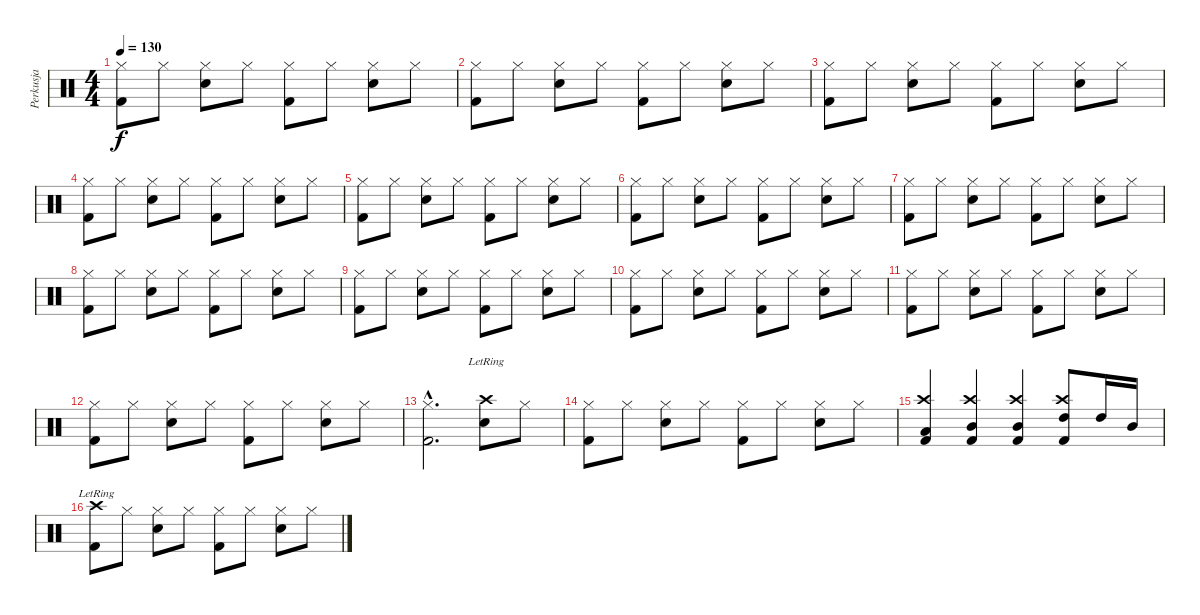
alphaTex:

\track ("Perkusja" "Perkusja") {instrument percussion}
\staff {score}
\articulation defaults
\ts (4 4)
\tempo 130
\clef neutral
\ks c
("Kick (hit) 2" "Hi-Hat (closed)").8{dy f} "Hi-Hat (closed)".8 ("Snare (hit) 2" "Hi-Hat (closed)").8 "Hi-Hat (closed)".8 ("Kick (hit) 2" "Hi-Hat (closed)").8 "Hi-Hat (closed)".8 ("Snare (hit) 2" "Hi-Hat (closed)").8 "Hi-Hat (closed)".8 |
("Kick (hit) 2" "Hi-Hat (closed)").8 "Hi-Hat (closed)".8 ("Snare (hit) 2" "Hi-Hat (closed)").8 "Hi-Hat (closed)".8 ("Kick (hit) 2" "Hi-Hat (closed)").8 "Hi-Hat (closed)".8 ("Snare (hit) 2" "Hi-Hat (closed)").8 "Hi-Hat (closed)".8 |
("Kick (hit) 2" "Hi-Hat (closed)").8 "Hi-Hat (closed)".8 ("Snare (hit) 2" "Hi-Hat (closed)").8 "Hi-Hat (closed)".8 ("Kick (hit) 2" "Hi-Hat (closed)").8 "Hi-Hat (closed)".8 ("Snare (hit) 2" "Hi-Hat (closed)").8 "Hi-Hat (closed)".8 |
("Kick (hit) 2" "Hi-Hat (closed)").8 "Hi-Hat (closed)".8 ("Snare (hit) 2" "Hi-Hat (closed)").8 "Hi-Hat (closed)".8 ("Kick (hit) 2" "Hi-Hat (closed)").8 "Hi-Hat (closed)".8 ("Snare (hit) 2" "Hi-Hat (closed)").8 "Hi-Hat (closed)".8 |
("Kick (hit) 2" "Hi-Hat (closed)").8 "Hi-Hat (closed)".8 ("Snare (hit) 2" "Hi-Hat (closed)").8 "Hi-Hat (closed)".8 ("Kick (hit) 2" "Hi-Hat (closed)").8 "Hi-Hat (closed)".8 ("Snare (hit) 2" "Hi-Hat (closed)").8 "Hi-Hat (closed)".8 |
("Kick (hit) 2" "Hi-Hat (closed)").8 "Hi-Hat (closed)".8 ("Snare (hit) 2" "Hi-Hat (closed)").8 "Hi-Hat (closed)".8 ("Kick (hit) 2" "Hi-Hat (closed)").8 "Hi-Hat (closed)".8 ("Snare (hit) 2" "Hi-Hat (closed)").8 "Hi-Hat (closed)".8 |
("Kick (hit) 2" "Hi-Hat (closed)").8 "Hi-Hat (closed)".8 ("Snare (hit) 2" "Hi-Hat (closed)").8 "Hi-Hat (closed)".8 ("Kick (hit) 2" "Hi-Hat (closed)").8 "Hi-Hat (closed)".8 ("Snare (hit) 2" "Hi-Hat (closed)").8 "Hi-Hat (closed)".8 |
("Kick (hit) 2" "Hi-Hat (closed)").8 "Hi-Hat (closed)".8 ("Snare (hit) 2" "Hi-Hat (closed)").8 "Hi-Hat (closed)".8 ("Kick (hit) 2" "Hi-Hat (closed)").8 "Hi-Hat (closed)".8 ("Snare (hit) 2" "Hi-Hat (closed)").8 "Hi-Hat (closed)".8 |
("Kick (hit) 2" "Hi-Hat (closed)").8 "Hi-Hat (closed)".8 ("Snare (hit) 2" "Hi-Hat (closed)").8 "Hi-Hat (closed)".8 ("Kick (hit) 2" "Hi-Hat (closed)").8 "Hi-Hat (closed)".8 ("Snare (hit) 2" "Hi-Hat (closed)").8 "Hi-Hat (closed)".8 |
("Kick (hit) 2" "Hi-Hat (closed)").8 "Hi-Hat (closed)".8 ("Snare (hit) 2" "Hi-Hat (closed)").8 "Hi-Hat (closed)".8 ("Kick (hit) 2" "Hi-Hat (closed)").8 "Hi-Hat (closed)".8 ("Snare (hit) 2" "Hi-Hat (closed)").8 "Hi-Hat (closed)".8 |
("Kick (hit) 2" "Hi-Hat (closed)").8 "Hi-Hat (closed)".8 ("Snare (hit) 2" "Hi-Hat (closed)").8 "Hi-Hat (closed)".8 ("Kick (hit) 2" "Hi-Hat (closed)").8 "Hi-Hat (closed)".8 ("Snare (hit) 2" "Hi-Hat (closed)").8 "Hi-Hat (closed)".8 |
("Kick (hit) 2" "Hi-Hat (closed)").8 "Hi-Hat (closed)".8 ("Snare (hit) 2" "Hi-Hat (closed)").8 "Hi-Hat (closed)".8 ("Kick (hit) 2" "Hi-Hat (closed)").8 "Hi-Hat (closed)".8 ("Snare (hit) 2" "Hi-Hat (closed)").8 "Hi-Hat (closed)".8 |
("Kick (hit) 2"{hac} "Hi-Hat (closed)"{hac}).2{d} ("Snare (hit) 2" "Crash high (hit)"{lr}).8 "Hi-Hat (closed)".8 |
("Kick (hit) 2" "Hi-Hat (closed)").8 "Hi-Hat (closed)".8 ("Snare (hit) 2" "Hi-Hat (closed)").8 "Hi-Hat (closed)".8 ("Kick (hit) 2" "Hi-Hat (closed)").8 "Hi-Hat (closed)".8 ("Snare (hit) 2" "Hi-Hat (closed)").8 "Hi-Hat (closed)".8 |
("Kick (hit) 2" "Low Tom (hit)" "Crash high (hit)").4 ("Kick (hit) 2" "Mid Tom (hit)" "Crash high (hit)").4 ("Kick (hit) 2" "Mid Tom (hit)" "Crash high (hit)").4 ("Kick (hit) 2" "High Tom (hit)" "Crash high (hit)").8 "High Tom (hit)".16 "Mid Tom (hit)".16 |
("Kick (hit) 2" "Crash high (hit)"{lr}).8 "Hi-Hat (closed)".8 ("Snare (hit) 2" "Hi-Hat (closed)").8 "Hi-Hat (closed)".8 ("Kick (hit) 2" "Hi-Hat (closed)").8 "Hi-Hat (closed)".8 ("Snare (hit) 2" "Hi-Hat (closed)").8 "Hi-Hat (closed)".8
